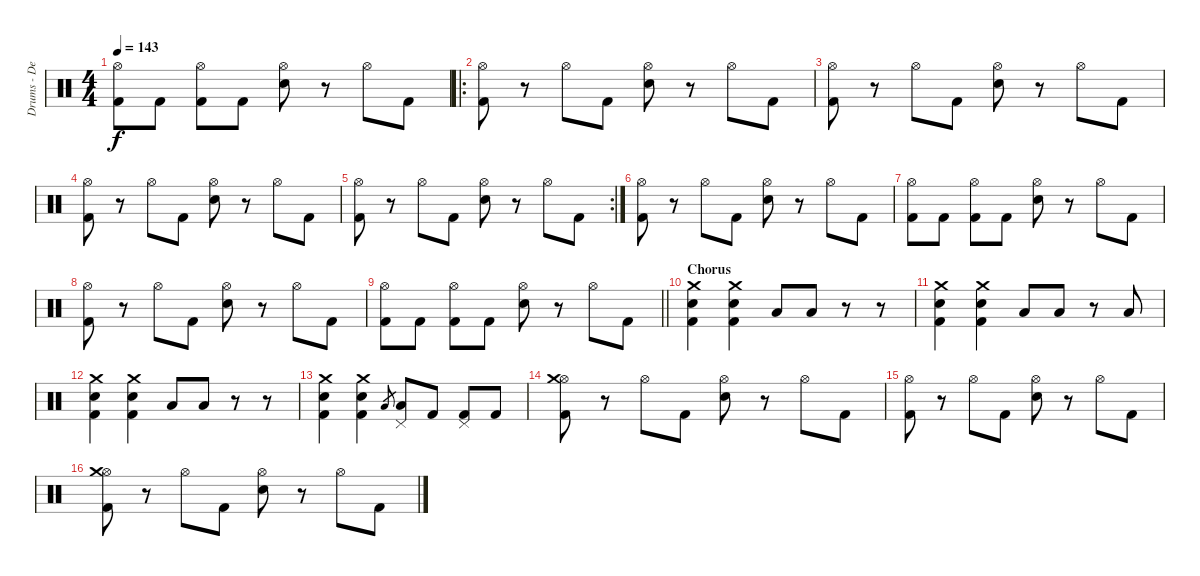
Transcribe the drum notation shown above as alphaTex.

\track ("Drums - Dennis Poschwatta" "Drums - De") {instrument percussion}
\staff {score}
\articulation defaults
\ts (4 4)
\tempo 143
\clef neutral
\ks c
("Hi-Hat (open)" "Kick (hit) 2").8{dy f} "Kick (hit) 2".8 ("Hi-Hat (open)" "Kick (hit) 2").8 "Kick (hit) 2".8 ("Hi-Hat (open)" "Electric Snare (hit)").8 r.8 "Hi-Hat (open)".8 "Kick (hit) 2".8 |
\ro
("Hi-Hat (open)" "Kick (hit) 2").8 r.8 "Hi-Hat (open)".8 "Kick (hit) 2".8 ("Hi-Hat (open)" "Electric Snare (hit)").8 r.8 "Hi-Hat (open)".8 "Kick (hit) 2".8 |
("Hi-Hat (open)" "Kick (hit) 2").8 r.8 "Hi-Hat (open)".8 "Kick (hit) 2".8 ("Hi-Hat (open)" "Electric Snare (hit)").8 r.8 "Hi-Hat (open)".8 "Kick (hit) 2".8 |
("Hi-Hat (open)" "Kick (hit) 2").8 r.8 "Hi-Hat (open)".8 "Kick (hit) 2".8 ("Hi-Hat (open)" "Electric Snare (hit)").8 r.8 "Hi-Hat (open)".8 "Kick (hit) 2".8 |
\rc 2
("Hi-Hat (open)" "Kick (hit) 2").8 r.8 "Hi-Hat (open)".8 "Kick (hit) 2".8 ("Hi-Hat (open)" "Electric Snare (hit)").8 r.8 "Hi-Hat (open)".8 "Kick (hit) 2".8 |
("Hi-Hat (open)" "Kick (hit) 2").8 r.8 "Hi-Hat (open)".8 "Kick (hit) 2".8 ("Hi-Hat (open)" "Electric Snare (hit)").8 r.8 "Hi-Hat (open)".8 "Kick (hit) 2".8 |
("Hi-Hat (open)" "Kick (hit) 2").8 "Kick (hit) 2".8 ("Hi-Hat (open)" "Kick (hit) 2").8 "Kick (hit) 2".8 ("Hi-Hat (open)" "Electric Snare (hit)").8 r.8 "Hi-Hat (open)".8 "Kick (hit) 2".8 |
("Hi-Hat (open)" "Kick (hit) 2").8 r.8 "Hi-Hat (open)".8 "Kick (hit) 2".8 ("Hi-Hat (open)" "Electric Snare (hit)").8 r.8 "Hi-Hat (open)".8 "Kick (hit) 2".8 |
\barLineRight lightlight
("Hi-Hat (open)" "Kick (hit) 2").8 "Kick (hit) 2".8 ("Hi-Hat (open)" "Kick (hit) 2").8 "Kick (hit) 2".8 ("Hi-Hat (open)" "Electric Snare (hit)").8 r.8 "Hi-Hat (open)".8 "Kick (hit) 2".8 |
\section ("" "Chorus")
("Crash medium (hit)" "Electric Snare (hit)" "Kick (hit) 2").4 ("Crash medium (hit)" "Electric Snare (hit)" "Kick (hit) 2").4 "Low Floor Tom (hit)".8 "Low Floor Tom (hit)".8 r.8 r.8 |
("Crash medium (hit)" "Electric Snare (hit)" "Kick (hit) 2").4 ("Crash medium (hit)" "Electric Snare (hit)" "Kick (hit) 2").4 "Low Floor Tom (hit)".8 "Low Floor Tom (hit)".8 r.8 "Low Floor Tom (hit)".8 |
("Crash medium (hit)" "Electric Snare (hit)" "Kick (hit) 2").4 ("Crash medium (hit)" "Electric Snare (hit)" "Kick (hit) 2").4 "Low Floor Tom (hit)".8 "Low Floor Tom (hit)".8 r.8 r.8 |
("Crash medium (hit)" "Electric Snare (hit)" "Kick (hit) 2").4 ("Crash medium (hit)" "Electric Snare (hit)" "Kick (hit) 2").4 "Low Floor Tom (hit)".8{gr} ("Pedal Hi-Hat (hit)" "Low Floor Tom (hit)").8 "Kick (hit) 2".8 ("Pedal Hi-Hat (hit)" "Kick (hit) 2").8 "Kick (hit) 2".8 |
("Hi-Hat (open)" "Crash medium (hit)" "Kick (hit) 2").8 r.8 "Hi-Hat (open)".8 "Kick (hit) 2".8 ("Hi-Hat (open)" "Electric Snare (hit)").8 r.8 "Hi-Hat (open)".8 "Kick (hit) 2".8 |
("Hi-Hat (open)" "Kick (hit) 2").8 r.8 "Hi-Hat (open)".8 "Kick (hit) 2".8 ("Hi-Hat (open)" "Electric Snare (hit)").8 r.8 "Hi-Hat (open)".8 "Kick (hit) 2".8 |
("Hi-Hat (open)" "Crash medium (hit)" "Kick (hit) 2").8 r.8 "Hi-Hat (open)".8 "Kick (hit) 2".8 ("Hi-Hat (open)" "Electric Snare (hit)").8 r.8 "Hi-Hat (open)".8 "Kick (hit) 2".8
